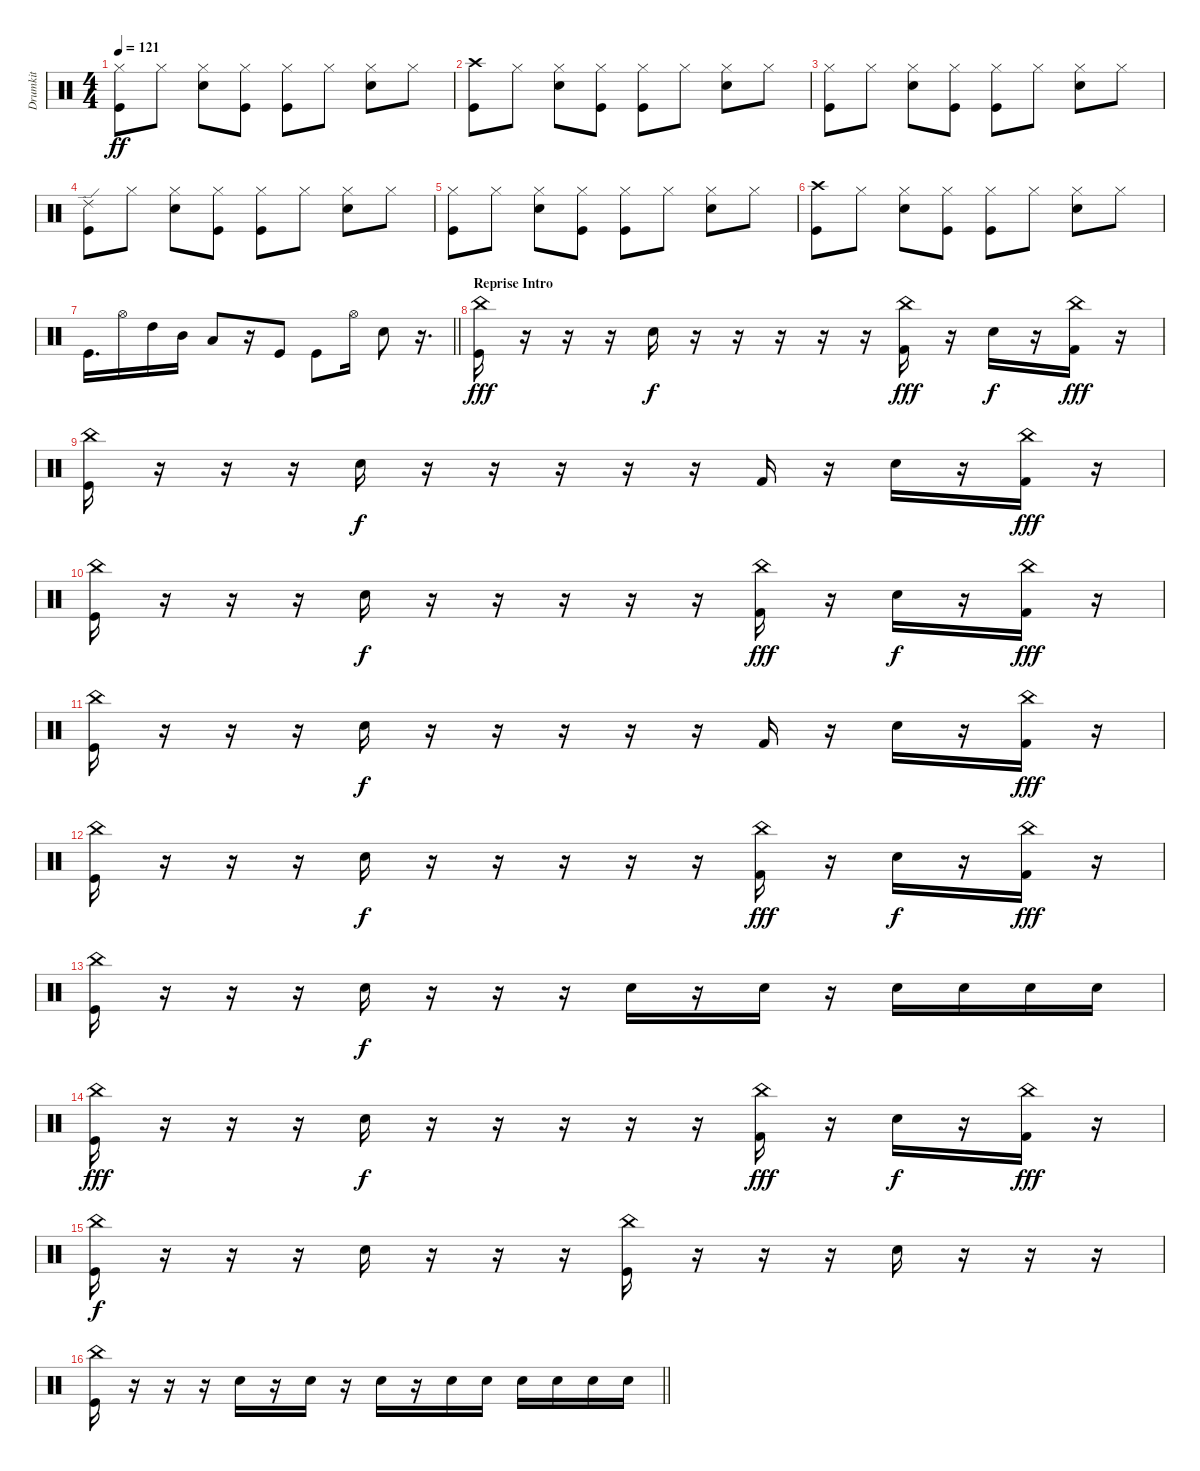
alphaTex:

\track ("Drumkit" "Drumkit") {instrument percussion}
\staff {score}
\articulation defaults
\ts (4 4)
\tempo 121
\clef neutral
\ks c
("Kick (hit)" "Hi-Hat (closed)").8{dy ff} "Hi-Hat (closed)".8 ("Hi-Hat (closed)" "Snare (hit) 2").8 ("Kick (hit)" "Hi-Hat (closed)").8 ("Hi-Hat (closed)" "Kick (hit)").8 "Hi-Hat (closed)".8 ("Hi-Hat (closed)" "Snare (hit) 2").8 "Hi-Hat (closed)".8 |
("Kick (hit)" "Crash high (hit)").8 "Hi-Hat (closed)".8 ("Hi-Hat (closed)" "Snare (hit) 2").8 ("Kick (hit)" "Hi-Hat (closed)").8 ("Hi-Hat (closed)" "Kick (hit)").8 "Hi-Hat (closed)".8 ("Hi-Hat (closed)" "Snare (hit) 2").8 "Hi-Hat (closed)".8 |
("Kick (hit)" "Hi-Hat (closed)").8 "Hi-Hat (closed)".8 ("Hi-Hat (closed)" "Snare (hit) 2").8 ("Kick (hit)" "Hi-Hat (closed)").8 ("Hi-Hat (closed)" "Kick (hit)").8 "Hi-Hat (closed)".8 ("Hi-Hat (closed)" "Snare (hit) 2").8 "Hi-Hat (closed)".8 |
("Kick (hit)" "Ride (edge) 2").8 "Hi-Hat (closed)".8 ("Hi-Hat (closed)" "Snare (hit) 2").8 ("Kick (hit)" "Hi-Hat (closed)").8 ("Hi-Hat (closed)" "Kick (hit)").8 "Hi-Hat (closed)".8 ("Hi-Hat (closed)" "Snare (hit) 2").8 "Hi-Hat (closed)".8 |
("Kick (hit)" "Hi-Hat (closed)").8 "Hi-Hat (closed)".8 ("Hi-Hat (closed)" "Snare (hit) 2").8 ("Kick (hit)" "Hi-Hat (closed)").8 ("Hi-Hat (closed)" "Kick (hit)").8 "Hi-Hat (closed)".8 ("Hi-Hat (closed)" "Snare (hit) 2").8 "Hi-Hat (closed)".8 |
("Kick (hit)" "Crash high (hit)").8 "Hi-Hat (closed)".8 ("Hi-Hat (closed)" "Snare (hit) 2").8 ("Kick (hit)" "Hi-Hat (closed)").8 ("Hi-Hat (closed)" "Kick (hit)").8 "Hi-Hat (closed)".8 ("Hi-Hat (closed)" "Snare (hit) 2").8 "Hi-Hat (closed)".8 |
\barLineRight lightlight "Kick (hit)".16{d} "Hi-Hat (open)".16 "High Tom (hit)".16 "Mid Tom (hit)".16 "Low Tom (hit)".8
r.16 "Kick (hit)".8 "Kick (hit)".8 "Hi-Hat (open)".16 "Snare (hit) 2".8 r.16{d} |
\section ("" "Reprise Intro")
("China (hit)" "Kick (hit)").16{dy fff} r.16 r.16 r.16 "Snare (hit) 2".16{dy f} r.16 r.16 r.16 r.16 r.16 ("China (hit)" "Kick (hit) 2").16{dy fff} r.16 "Snare (hit) 2".16{dy f} r.16 ("China (hit)" "Kick (hit) 2").16{dy fff} r.16 |
("China (hit)" "Kick (hit)").16 r.16 r.16 r.16 "Snare (hit) 2".16{dy f} r.16 r.16 r.16 r.16 r.16 "Kick (hit) 2".16 r.16 "Snare (hit) 2".16 r.16 ("China (hit)" "Kick (hit) 2").16{dy fff} r.16 |
("China (hit)" "Kick (hit)").16 r.16 r.16 r.16 "Snare (hit) 2".16{dy f} r.16 r.16 r.16 r.16 r.16 ("China (hit)" "Kick (hit) 2").16{dy fff} r.16 "Snare (hit) 2".16{dy f} r.16 ("China (hit)" "Kick (hit) 2").16{dy fff} r.16 |
("China (hit)" "Kick (hit)").16 r.16 r.16 r.16 "Snare (hit) 2".16{dy f} r.16 r.16 r.16 r.16 r.16 "Kick (hit) 2".16 r.16 "Snare (hit) 2".16 r.16 ("China (hit)" "Kick (hit) 2").16{dy fff} r.16 |
("China (hit)" "Kick (hit)").16 r.16 r.16 r.16 "Snare (hit) 2".16{dy f} r.16 r.16 r.16 r.16 r.16 ("China (hit)" "Kick (hit) 2").16{dy fff} r.16 "Snare (hit) 2".16{dy f} r.16 ("China (hit)" "Kick (hit) 2").16{dy fff} r.16 |
("China (hit)" "Kick (hit)").16 r.16 r.16 r.16 "Snare (hit) 2".16{dy f} r.16 r.16 r.16 "Snare (hit) 2".16 r.16 "Snare (hit) 2".16 r.16 "Snare (hit) 2".16 "Snare (hit) 2".16 "Snare (hit) 2".16 "Snare (hit) 2".16 |
("China (hit)" "Kick (hit)").16{dy fff} r.16 r.16 r.16 "Snare (hit) 2".16{dy f} r.16 r.16 r.16 r.16 r.16 ("China (hit)" "Kick (hit) 2").16{dy fff} r.16 "Snare (hit) 2".16{dy f} r.16 ("China (hit)" "Kick (hit) 2").16{dy fff} r.16 |
("China (hit)" "Kick (hit)").16{dy f} r.16 r.16 r.16 "Snare (hit) 2".16 r.16 r.16 r.16 ("China (hit)" "Kick (hit)").16 r.16 r.16 r.16 "Snare (hit) 2".16 r.16 r.16 r.16 |
\barLineRight lightlight
("China (hit)" "Kick (hit)").16 r.16 r.16 r.16 "Snare (hit) 2".16 r.16 "Snare (hit) 2".16 r.16 "Snare (hit) 2".16 r.16 "Snare (hit) 2".16 "Snare (hit) 2".16 "Snare (hit) 2".16 "Snare (hit) 2".16 "Snare (hit) 2".16 "Snare (hit) 2".16
